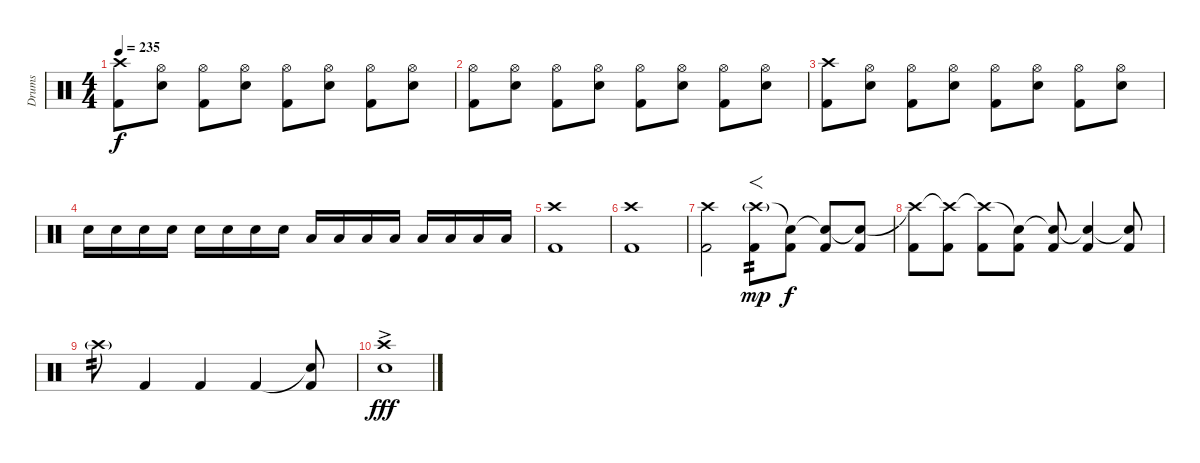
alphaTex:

\track ("Drums" "Drums") {instrument percussion}
\staff {score}
\articulation defaults
\ts (4 4)
\tempo 235
\clef neutral
\ks c
("Crash high (hit)" "Kick (hit) 2").8{dy f} ("Hi-Hat (open)" "Electric Snare (hit)").8 ("Hi-Hat (open)" "Kick (hit) 2").8 ("Hi-Hat (open)" "Electric Snare (hit)").8 ("Hi-Hat (open)" "Kick (hit) 2").8 ("Hi-Hat (open)" "Electric Snare (hit)").8 ("Hi-Hat (open)" "Kick (hit) 2").8 ("Hi-Hat (open)" "Electric Snare (hit)").8 |
("Hi-Hat (open)" "Kick (hit) 2").8 ("Hi-Hat (open)" "Electric Snare (hit)").8 ("Hi-Hat (open)" "Kick (hit) 2").8 ("Hi-Hat (open)" "Electric Snare (hit)").8 ("Hi-Hat (open)" "Kick (hit) 2").8 ("Hi-Hat (open)" "Electric Snare (hit)").8 ("Hi-Hat (open)" "Kick (hit) 2").8 ("Hi-Hat (open)" "Electric Snare (hit)").8 |
("Crash high (hit)" "Kick (hit) 2").8 ("Hi-Hat (open)" "Electric Snare (hit)").8 ("Hi-Hat (open)" "Kick (hit) 2").8 ("Hi-Hat (open)" "Electric Snare (hit)").8 ("Hi-Hat (open)" "Kick (hit) 2").8 ("Hi-Hat (open)" "Electric Snare (hit)").8 ("Hi-Hat (open)" "Kick (hit) 2").8 ("Hi-Hat (open)" "Electric Snare (hit)").8 |
"Electric Snare (hit)".16 "Electric Snare (hit)".16 "Electric Snare (hit)".16 "Electric Snare (hit)".16 "Electric Snare (hit)".16 "Electric Snare (hit)".16 "Electric Snare (hit)".16 "Electric Snare (hit)".16 "Low Floor Tom (hit)".16 "Low Floor Tom (hit)".16 "Low Floor Tom (hit)".16 "Low Floor Tom (hit)".16 "Low Floor Tom (hit)".16 "Low Floor Tom (hit)".16 "Low Floor Tom (hit)".16 "Low Floor Tom (hit)".16 |
("Crash high (hit)" "Kick (hit) 2").1 |
("Crash high (hit)" "Kick (hit) 2").1 |
("Crash high (hit)" "Kick (hit) 2").2 ("Crash high (hit)"{g} "Kick (hit) 2").8{f tp 2 dy mp} ("Snare (hit)"{t} "Kick (hit) 2").8{dy f} ("Snare (hit)"{t} "Kick (hit) 2").8 ("Snare (hit)"{t} "Kick (hit) 2").8 |
("Crash high (hit)"{t} "Kick (hit) 2").8 ("Crash high (hit)"{t} "Kick (hit) 2").8 ("Crash high (hit)"{t} "Kick (hit) 2").8 ("Snare (hit)"{t} "Kick (hit) 2").8 ("Snare (hit)"{t} "Kick (hit) 2").8 ("Snare (hit)"{t} "Kick (hit) 2").4 ("Snare (hit)"{t} "Kick (hit) 2").8 |
"Crash high (hit)"{g}.8{tp 2} "Kick (hit) 2".4 "Kick (hit) 2".4 "Kick (hit) 2".4 ("Snare (hit)"{t} "Kick (hit) 2").8 |
("Crash high (hit)"{ac} "Electric Snare (hit)"{ac}).1{dy fff}
